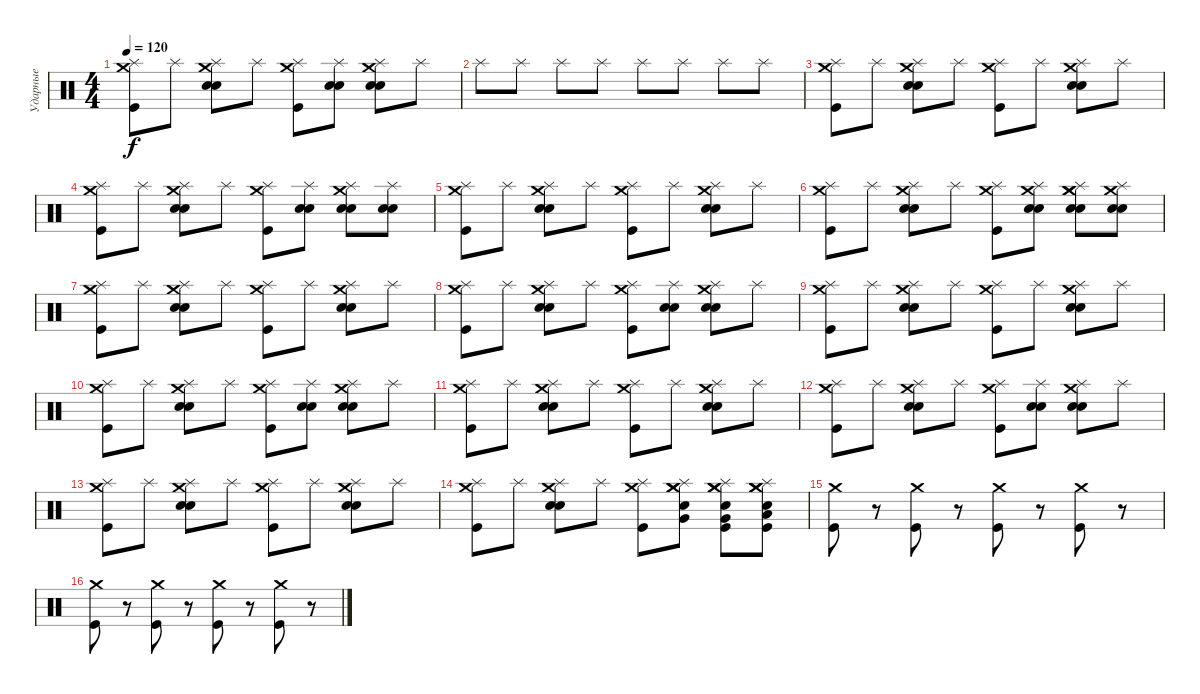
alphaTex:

\track ("Ударные" "Ударные") {instrument percussion}
\staff {score}
\articulation defaults
\ts (4 4)
\tempo 120
\clef neutral
\ks c
("Crash medium (hit)" "Splash (hit)" "Kick (hit)").8{dy f} "Splash (hit)".8 ("Crash medium (hit)" "Splash (hit)" "Electric Snare (hit)" "Electric Snare (hit)").8 "Splash (hit)".8 ("Crash medium (hit)" "Splash (hit)" "Kick (hit)").8 ("Splash (hit)" "Snare (hit) 2" "Snare (hit) 2").8 ("Crash medium (hit)" "Splash (hit)" "Electric Snare (hit)" "Electric Snare (hit)").8 "Splash (hit)".8 |
"Splash (hit)".8 "Splash (hit)".8 "Splash (hit)".8 "Splash (hit)".8 "Splash (hit)".8 "Splash (hit)".8 "Splash (hit)".8 "Splash (hit)".8 |
("Crash medium (hit)" "Splash (hit)" "Kick (hit)").8 "Splash (hit)".8 ("Crash medium (hit)" "Splash (hit)" "Electric Snare (hit)" "Electric Snare (hit)").8 "Splash (hit)".8 ("Crash medium (hit)" "Splash (hit)" "Kick (hit)").8 "Splash (hit)".8 ("Crash medium (hit)" "Splash (hit)" "Electric Snare (hit)" "Electric Snare (hit)").8 "Splash (hit)".8 |
("Crash medium (hit)" "Splash (hit)" "Kick (hit)").8 "Splash (hit)".8 ("Crash medium (hit)" "Splash (hit)" "Electric Snare (hit)" "Electric Snare (hit)").8 "Splash (hit)".8 ("Crash medium (hit)" "Splash (hit)" "Kick (hit)").8 ("Splash (hit)" "Snare (hit) 2" "Snare (hit) 2").8 ("Crash medium (hit)" "Splash (hit)" "Electric Snare (hit)" "Electric Snare (hit)").8 ("Splash (hit)" "Snare (hit) 2" "Snare (hit) 2").8 |
("Crash medium (hit)" "Splash (hit)" "Kick (hit)").8 "Splash (hit)".8 ("Crash medium (hit)" "Splash (hit)" "Electric Snare (hit)" "Electric Snare (hit)").8 "Splash (hit)".8 ("Crash medium (hit)" "Splash (hit)" "Kick (hit)").8 "Splash (hit)".8 ("Crash medium (hit)" "Splash (hit)" "Electric Snare (hit)" "Electric Snare (hit)").8 "Splash (hit)".8 |
("Crash medium (hit)" "Splash (hit)" "Kick (hit)").8 "Splash (hit)".8 ("Crash medium (hit)" "Splash (hit)" "Electric Snare (hit)" "Electric Snare (hit)").8 "Splash (hit)".8 ("Crash medium (hit)" "Splash (hit)" "Kick (hit)").8 ("Splash (hit)" "Snare (hit) 2" "Snare (hit) 2" "Crash medium (hit)").8 ("Crash medium (hit)" "Splash (hit)" "Snare (hit) 2" "Snare (hit) 2" "Crash medium (hit)").8 ("Splash (hit)" "Snare (hit) 2" "Snare (hit) 2" "Crash medium (hit)").8 |
("Crash medium (hit)" "Splash (hit)" "Kick (hit)").8 "Splash (hit)".8 ("Crash medium (hit)" "Splash (hit)" "Electric Snare (hit)" "Electric Snare (hit)").8 "Splash (hit)".8 ("Crash medium (hit)" "Splash (hit)" "Kick (hit)").8 "Splash (hit)".8 ("Crash medium (hit)" "Splash (hit)" "Electric Snare (hit)" "Electric Snare (hit)").8 "Splash (hit)".8 |
("Crash medium (hit)" "Splash (hit)" "Kick (hit)").8 "Splash (hit)".8 ("Crash medium (hit)" "Splash (hit)" "Electric Snare (hit)" "Electric Snare (hit)").8 "Splash (hit)".8 ("Crash medium (hit)" "Splash (hit)" "Kick (hit)").8 ("Splash (hit)" "Snare (hit) 2" "Snare (hit) 2").8 ("Crash medium (hit)" "Splash (hit)" "Electric Snare (hit)" "Electric Snare (hit)").8 "Splash (hit)".8 |
("Crash medium (hit)" "Splash (hit)" "Kick (hit)").8 "Splash (hit)".8 ("Crash medium (hit)" "Splash (hit)" "Electric Snare (hit)" "Electric Snare (hit)").8 "Splash (hit)".8 ("Crash medium (hit)" "Splash (hit)" "Kick (hit)").8 "Splash (hit)".8 ("Crash medium (hit)" "Splash (hit)" "Electric Snare (hit)" "Electric Snare (hit)").8 "Splash (hit)".8 |
("Crash medium (hit)" "Splash (hit)" "Kick (hit)").8 "Splash (hit)".8 ("Crash medium (hit)" "Splash (hit)" "Electric Snare (hit)" "Electric Snare (hit)").8 "Splash (hit)".8 ("Crash medium (hit)" "Splash (hit)" "Kick (hit)").8 ("Splash (hit)" "Snare (hit) 2" "Snare (hit) 2").8 ("Crash medium (hit)" "Splash (hit)" "Electric Snare (hit)" "Electric Snare (hit)").8 "Splash (hit)".8 |
("Crash medium (hit)" "Splash (hit)" "Kick (hit)").8 "Splash (hit)".8 ("Crash medium (hit)" "Splash (hit)" "Electric Snare (hit)" "Electric Snare (hit)").8 "Splash (hit)".8 ("Crash medium (hit)" "Splash (hit)" "Kick (hit)").8 "Splash (hit)".8 ("Crash medium (hit)" "Splash (hit)" "Electric Snare (hit)" "Electric Snare (hit)").8 "Splash (hit)".8 |
("Crash medium (hit)" "Splash (hit)" "Kick (hit)").8 "Splash (hit)".8 ("Crash medium (hit)" "Splash (hit)" "Electric Snare (hit)" "Electric Snare (hit)").8 "Splash (hit)".8 ("Crash medium (hit)" "Splash (hit)" "Kick (hit)").8 ("Splash (hit)" "Snare (hit) 2" "Snare (hit) 2").8 ("Crash medium (hit)" "Splash (hit)" "Electric Snare (hit)" "Electric Snare (hit)").8 "Splash (hit)".8 |
("Crash medium (hit)" "Splash (hit)" "Kick (hit)").8 "Splash (hit)".8 ("Crash medium (hit)" "Splash (hit)" "Electric Snare (hit)" "Electric Snare (hit)").8 "Splash (hit)".8 ("Crash medium (hit)" "Splash (hit)" "Kick (hit)").8 "Splash (hit)".8 ("Crash medium (hit)" "Splash (hit)" "Electric Snare (hit)" "Electric Snare (hit)").8 "Splash (hit)".8 |
("Crash medium (hit)" "Splash (hit)" "Kick (hit)").8 "Splash (hit)".8 ("Crash medium (hit)" "Splash (hit)" "Electric Snare (hit)" "Electric Snare (hit)").8 "Splash (hit)".8 ("Crash medium (hit)" "Splash (hit)" "Kick (hit)").8 ("Crash medium (hit)" "Splash (hit)" "Snare (hit) 2" "Very Low Tom (hit)" "Crash medium (hit)").8 ("Crash medium (hit)" "Splash (hit)" "Electric Snare (hit)" "Very Low Tom (hit)" "Crash medium (hit)" "Kick (hit)").8 ("Crash medium (hit)" "Splash (hit)" "Snare (hit) 2" "Low Floor Tom (hit)" "Crash medium (hit)" "Kick (hit)").8 |
("Crash medium (hit)" "Kick (hit)").8 r.8 ("Crash medium (hit)" "Kick (hit)").8 r.8 ("Crash medium (hit)" "Kick (hit)").8 r.8 ("Crash medium (hit)" "Kick (hit)").8 r.8 |
("Crash medium (hit)" "Kick (hit)").8 r.8 ("Crash medium (hit)" "Kick (hit)").8 r.8 ("Crash medium (hit)" "Kick (hit)").8 r.8 ("Crash medium (hit)" "Kick (hit)").8 r.8
